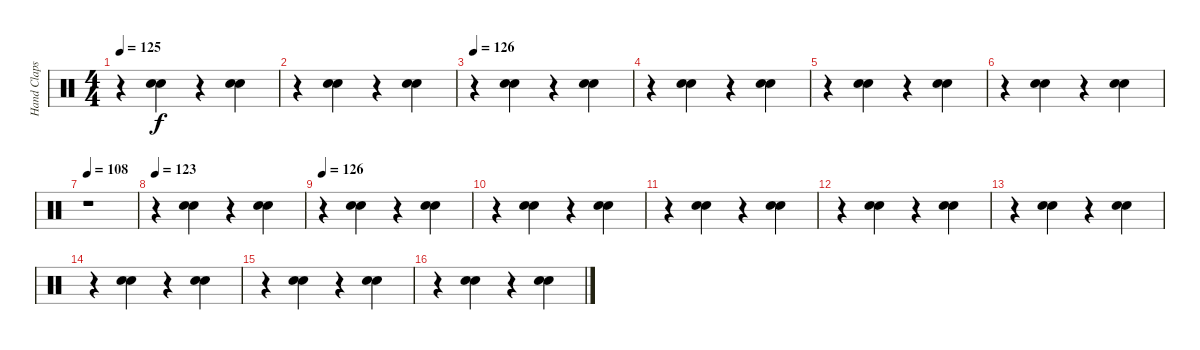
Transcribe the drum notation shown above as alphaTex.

\track ("Hand Claps" "Hand Claps") {instrument percussion}
\staff {score}
\articulation defaults
\ts (4 4)
\tempo 125
\clef neutral
\ks c
r.4{dy f} ("Hand Clap (hit)" "Hand Clap (hit)").4 r.4 ("Hand Clap (hit)" "Hand Clap (hit)").4 |
r.4 ("Hand Clap (hit)" "Hand Clap (hit)").4 r.4 ("Hand Clap (hit)" "Hand Clap (hit)").4 |
\tempo 126
r.4 ("Hand Clap (hit)" "Hand Clap (hit)").4 r.4 ("Hand Clap (hit)" "Hand Clap (hit)").4 |
r.4 ("Hand Clap (hit)" "Hand Clap (hit)").4 r.4 ("Hand Clap (hit)" "Hand Clap (hit)").4 |
r.4 ("Hand Clap (hit)" "Hand Clap (hit)").4 r.4 ("Hand Clap (hit)" "Hand Clap (hit)").4 |
r.4 ("Hand Clap (hit)" "Hand Clap (hit)").4 r.4 ("Hand Clap (hit)" "Hand Clap (hit)").4 |
\tempo 108
r.1 |
\tempo 123
r.4 ("Hand Clap (hit)" "Hand Clap (hit)").4 r.4 ("Hand Clap (hit)" "Hand Clap (hit)").4 |
\tempo 126
r.4 ("Hand Clap (hit)" "Hand Clap (hit)").4 r.4 ("Hand Clap (hit)" "Hand Clap (hit)").4 |
r.4 ("Hand Clap (hit)" "Hand Clap (hit)").4 r.4 ("Hand Clap (hit)" "Hand Clap (hit)").4 |
r.4 ("Hand Clap (hit)" "Hand Clap (hit)").4 r.4 ("Hand Clap (hit)" "Hand Clap (hit)").4 |
r.4 ("Hand Clap (hit)" "Hand Clap (hit)").4 r.4 ("Hand Clap (hit)" "Hand Clap (hit)").4 |
r.4 ("Hand Clap (hit)" "Hand Clap (hit)").4 r.4 ("Hand Clap (hit)" "Hand Clap (hit)").4 |
r.4 ("Hand Clap (hit)" "Hand Clap (hit)").4 r.4 ("Hand Clap (hit)" "Hand Clap (hit)").4 |
r.4 ("Hand Clap (hit)" "Hand Clap (hit)").4 r.4 ("Hand Clap (hit)" "Hand Clap (hit)").4 |
r.4 ("Hand Clap (hit)" "Hand Clap (hit)").4 r.4 ("Hand Clap (hit)" "Hand Clap (hit)").4
